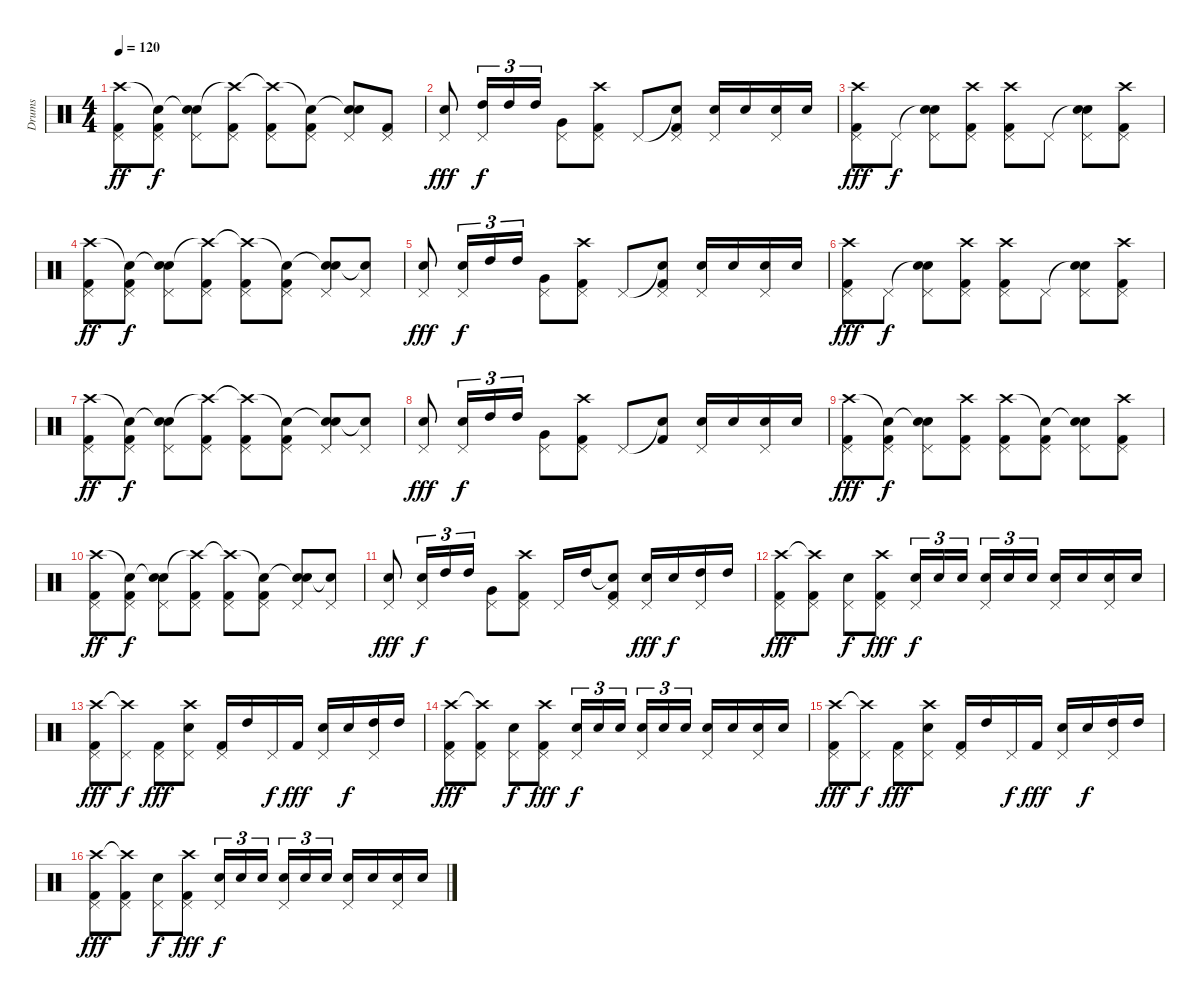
\track ("Drums" "Drums") {instrument percussion}
\staff {score}
\articulation defaults
\ts (4 4)
\tempo 120
\clef neutral
\ks c
("Crash high (hit)" "Pedal Hi-Hat (hit)" "Kick (hit) 2").8{dy ff} ("Snare (hit)"{t} "Pedal Hi-Hat (hit)" "Kick (hit) 2").8{dy f} ("Snare (hit)"{t} "Pedal Hi-Hat (hit)" "Electric Snare (hit)").8 ("Crash high (hit)"{t} "Pedal Hi-Hat (hit)" "Kick (hit) 2").8 ("Crash high (hit)"{t} "Pedal Hi-Hat (hit)" "Kick (hit) 2").8 ("Snare (hit)"{t} "Pedal Hi-Hat (hit)" "Kick (hit) 2").8 ("Snare (hit)"{t} "Pedal Hi-Hat (hit)" "Electric Snare (hit)").8 ("Pedal Hi-Hat (hit)" "Kick (hit) 2").8 |
("Pedal Hi-Hat (hit)" "Electric Snare (hit)").8{dy fff} ("Pedal Hi-Hat (hit)" "High Tom (hit)").16{tu (3 2) dy f} "High Tom (hit)".16{tu (3 2)} "High Tom (hit)".16{tu (3 2)} ("Pedal Hi-Hat (hit)" "Very Low Tom (hit)").8 ("Crash high (hit)" "Pedal Hi-Hat (hit)" "Kick (hit) 2").8 "Pedal Hi-Hat (hit)".8 ("Snare (hit)"{t} "Pedal Hi-Hat (hit)" "Kick (hit) 2").8 ("Pedal Hi-Hat (hit)" "Electric Snare (hit)").16 "Electric Snare (hit)".16 ("Pedal Hi-Hat (hit)" "Electric Snare (hit)").16 "Electric Snare (hit)".16 |
("Crash high (hit)" "Pedal Hi-Hat (hit)" "Kick (hit) 2").8{dy fff} "Pedal Hi-Hat (hit)".8{dy f} ("Snare (hit)"{t} "Pedal Hi-Hat (hit)" "Electric Snare (hit)").8 ("Crash high (hit)" "Pedal Hi-Hat (hit)" "Kick (hit) 2").8 ("Crash high (hit)" "Pedal Hi-Hat (hit)" "Kick (hit) 2").8 "Pedal Hi-Hat (hit)".8 ("Snare (hit)"{t} "Pedal Hi-Hat (hit)" "Electric Snare (hit)").8 ("Crash high (hit)" "Pedal Hi-Hat (hit)" "Kick (hit) 2").8 |
("Crash high (hit)" "Pedal Hi-Hat (hit)" "Kick (hit) 2").8{dy ff} ("Snare (hit)"{t} "Pedal Hi-Hat (hit)" "Kick (hit) 2").8{dy f} ("Snare (hit)"{t} "Pedal Hi-Hat (hit)" "Electric Snare (hit)").8 ("Crash high (hit)"{t} "Pedal Hi-Hat (hit)" "Kick (hit) 2").8 ("Crash high (hit)"{t} "Pedal Hi-Hat (hit)" "Kick (hit) 2").8 ("Snare (hit)"{t} "Pedal Hi-Hat (hit)" "Kick (hit) 2").8 ("Snare (hit)"{t} "Pedal Hi-Hat (hit)" "Electric Snare (hit)").8 ("Snare (hit)"{t} "Pedal Hi-Hat (hit)").8 |
("Pedal Hi-Hat (hit)" "Electric Snare (hit)").8{dy fff} ("Pedal Hi-Hat (hit)" "Electric Snare (hit)").16{tu (3 2) dy f} "High Tom (hit)".16{tu (3 2)} "High Tom (hit)".16{tu (3 2)} ("Pedal Hi-Hat (hit)" "Very Low Tom (hit)").8 ("Crash high (hit)" "Pedal Hi-Hat (hit)" "Kick (hit) 2").8 "Pedal Hi-Hat (hit)".8 ("Snare (hit)"{t} "Pedal Hi-Hat (hit)" "Kick (hit) 2").8 ("Pedal Hi-Hat (hit)" "Electric Snare (hit)").16 "Electric Snare (hit)".16 ("Pedal Hi-Hat (hit)" "Electric Snare (hit)").16 "Electric Snare (hit)".16 |
("Crash high (hit)" "Pedal Hi-Hat (hit)" "Kick (hit) 2").8{dy fff} "Pedal Hi-Hat (hit)".8{dy f} ("Snare (hit)"{t} "Pedal Hi-Hat (hit)" "Electric Snare (hit)").8 ("Crash high (hit)" "Pedal Hi-Hat (hit)" "Kick (hit) 2").8 ("Crash high (hit)" "Pedal Hi-Hat (hit)" "Kick (hit) 2").8 "Pedal Hi-Hat (hit)".8 ("Snare (hit)"{t} "Pedal Hi-Hat (hit)" "Electric Snare (hit)").8 ("Crash high (hit)" "Pedal Hi-Hat (hit)" "Kick (hit) 2").8 |
("Crash high (hit)" "Pedal Hi-Hat (hit)" "Kick (hit) 2").8{dy ff} ("Snare (hit)"{t} "Pedal Hi-Hat (hit)" "Kick (hit) 2").8{dy f} ("Snare (hit)"{t} "Pedal Hi-Hat (hit)" "Electric Snare (hit)").8 ("Crash high (hit)"{t} "Pedal Hi-Hat (hit)" "Kick (hit) 2").8 ("Crash high (hit)"{t} "Pedal Hi-Hat (hit)" "Kick (hit) 2").8 ("Snare (hit)"{t} "Pedal Hi-Hat (hit)" "Kick (hit) 2").8 ("Snare (hit)"{t} "Pedal Hi-Hat (hit)" "Electric Snare (hit)").8 ("Snare (hit)"{t} "Pedal Hi-Hat (hit)").8 |
("Pedal Hi-Hat (hit)" "Electric Snare (hit)").8{dy fff} ("Pedal Hi-Hat (hit)" "Electric Snare (hit)").16{tu (3 2) dy f} "High Tom (hit)".16{tu (3 2)} "High Tom (hit)".16{tu (3 2)} ("Pedal Hi-Hat (hit)" "Very Low Tom (hit)").8 ("Crash high (hit)" "Pedal Hi-Hat (hit)" "Kick (hit) 2").8 "Pedal Hi-Hat (hit)".8 ("Snare (hit)"{t} "Kick (hit) 2").8 ("Pedal Hi-Hat (hit)" "Electric Snare (hit)").16 "Electric Snare (hit)".16 ("Pedal Hi-Hat (hit)" "Electric Snare (hit)").16 "Electric Snare (hit)".16 |
("Crash high (hit)" "Pedal Hi-Hat (hit)" "Kick (hit) 2").8{dy fff} ("Snare (hit)"{t} "Pedal Hi-Hat (hit)" "Kick (hit) 2").8{dy f} ("Snare (hit)"{t} "Pedal Hi-Hat (hit)" "Electric Snare (hit)").8 ("Crash high (hit)" "Pedal Hi-Hat (hit)" "Kick (hit) 2").8 ("Crash high (hit)" "Pedal Hi-Hat (hit)" "Kick (hit) 2").8 ("Snare (hit)"{t} "Pedal Hi-Hat (hit)" "Kick (hit) 2").8 ("Snare (hit)"{t} "Pedal Hi-Hat (hit)" "Electric Snare (hit)").8 ("Crash high (hit)" "Pedal Hi-Hat (hit)" "Kick (hit) 2").8 |
("Crash high (hit)" "Pedal Hi-Hat (hit)" "Kick (hit) 2").8{dy ff} ("Snare (hit)"{t} "Pedal Hi-Hat (hit)" "Kick (hit) 2").8{dy f} ("Snare (hit)"{t} "Pedal Hi-Hat (hit)" "Electric Snare (hit)").8 ("Crash high (hit)"{t} "Pedal Hi-Hat (hit)" "Kick (hit) 2").8 ("Crash high (hit)"{t} "Pedal Hi-Hat (hit)" "Kick (hit) 2").8 ("Snare (hit)"{t} "Pedal Hi-Hat (hit)" "Kick (hit) 2").8 ("Snare (hit)"{t} "Pedal Hi-Hat (hit)" "Electric Snare (hit)").8 ("Snare (hit)"{t} "Pedal Hi-Hat (hit)").8 |
("Pedal Hi-Hat (hit)" "Electric Snare (hit)").8{dy fff} ("Pedal Hi-Hat (hit)" "Electric Snare (hit)").16{tu (3 2) dy f} "High Tom (hit)".16{tu (3 2)} "High Tom (hit)".16{tu (3 2)} ("Pedal Hi-Hat (hit)" "Very Low Tom (hit)").8 ("Crash high (hit)" "Pedal Hi-Hat (hit)" "Kick (hit) 2").8 "Pedal Hi-Hat (hit)".16 "High Tom (hit)".16 ("Snare (hit)"{t} "Pedal Hi-Hat (hit)" "Kick (hit) 2").8 ("Pedal Hi-Hat (hit)" "Electric Snare (hit)").16{dy fff} "Electric Snare (hit)".16{dy f} ("Pedal Hi-Hat (hit)" "High Tom (hit)").16 "High Tom (hit)".16 |
("Crash high (hit)" "Pedal Hi-Hat (hit)" "Kick (hit) 2").8{dy fff} ("Crash high (hit)"{t} "Pedal Hi-Hat (hit)" "Kick (hit) 2").8 ("Pedal Hi-Hat (hit)" "Electric Snare (hit)").8{dy f} ("Crash high (hit)" "Pedal Hi-Hat (hit)" "Kick (hit) 2").8{dy fff} ("Pedal Hi-Hat (hit)" "Electric Snare (hit)").16{tu (3 2) dy f} "Electric Snare (hit)".16{tu (3 2)} "Electric Snare (hit)".16{tu (3 2)} ("Pedal Hi-Hat (hit)" "Electric Snare (hit)").16{tu (3 2)} "Electric Snare (hit)".16{tu (3 2)} "Electric Snare (hit)".16{tu (3 2)} ("Pedal Hi-Hat (hit)" "Electric Snare (hit)").16 "Electric Snare (hit)".16 ("Pedal Hi-Hat (hit)" "Electric Snare (hit)").16 "Electric Snare (hit)".16 |
("Crash high (hit)" "Pedal Hi-Hat (hit)" "Kick (hit) 2").8{dy fff} ("Crash high (hit)"{t} "Pedal Hi-Hat (hit)").8{dy f} ("Pedal Hi-Hat (hit)" "Kick (hit) 2").8{dy fff} ("Crash high (hit)" "Pedal Hi-Hat (hit)" "Electric Snare (hit)").8 ("Pedal Hi-Hat (hit)" "Kick (hit) 2").16 "High Tom (hit)".16 "Pedal Hi-Hat (hit)".16{dy f} "Kick (hit) 2".16{dy fff} ("Pedal Hi-Hat (hit)" "Electric Snare (hit)").16 "Electric Snare (hit)".16{dy f} ("Pedal Hi-Hat (hit)" "High Tom (hit)").16 "High Tom (hit)".16 |
("Crash high (hit)" "Pedal Hi-Hat (hit)" "Kick (hit) 2").8{dy fff} ("Crash high (hit)"{t} "Pedal Hi-Hat (hit)" "Kick (hit) 2").8 ("Pedal Hi-Hat (hit)" "Electric Snare (hit)").8{dy f} ("Crash high (hit)" "Pedal Hi-Hat (hit)" "Kick (hit) 2").8{dy fff} ("Pedal Hi-Hat (hit)" "Electric Snare (hit)").16{tu (3 2) dy f} "Electric Snare (hit)".16{tu (3 2)} "Electric Snare (hit)".16{tu (3 2)} ("Pedal Hi-Hat (hit)" "Electric Snare (hit)").16{tu (3 2)} "Electric Snare (hit)".16{tu (3 2)} "Electric Snare (hit)".16{tu (3 2)} ("Pedal Hi-Hat (hit)" "Electric Snare (hit)").16 "Electric Snare (hit)".16 ("Pedal Hi-Hat (hit)" "Electric Snare (hit)").16 "Electric Snare (hit)".16 |
("Crash high (hit)" "Pedal Hi-Hat (hit)" "Kick (hit) 2").8{dy fff} ("Crash high (hit)"{t} "Pedal Hi-Hat (hit)").8{dy f} ("Pedal Hi-Hat (hit)" "Kick (hit) 2").8{dy fff} ("Crash high (hit)" "Pedal Hi-Hat (hit)" "Electric Snare (hit)").8 ("Pedal Hi-Hat (hit)" "Kick (hit) 2").16 "High Tom (hit)".16 "Pedal Hi-Hat (hit)".16{dy f} "Kick (hit) 2".16{dy fff} ("Pedal Hi-Hat (hit)" "Electric Snare (hit)").16 "Electric Snare (hit)".16{dy f} ("Pedal Hi-Hat (hit)" "High Tom (hit)").16 "High Tom (hit)".16 |
("Crash high (hit)" "Pedal Hi-Hat (hit)" "Kick (hit) 2").8{dy fff} ("Crash high (hit)"{t} "Pedal Hi-Hat (hit)" "Kick (hit) 2").8 ("Pedal Hi-Hat (hit)" "Electric Snare (hit)").8{dy f} ("Crash high (hit)" "Pedal Hi-Hat (hit)" "Kick (hit) 2").8{dy fff} ("Pedal Hi-Hat (hit)" "Electric Snare (hit)").16{tu (3 2) dy f} "Electric Snare (hit)".16{tu (3 2)} "Electric Snare (hit)".16{tu (3 2)} ("Pedal Hi-Hat (hit)" "Electric Snare (hit)").16{tu (3 2)} "Electric Snare (hit)".16{tu (3 2)} "Electric Snare (hit)".16{tu (3 2)} ("Pedal Hi-Hat (hit)" "Electric Snare (hit)").16 "Electric Snare (hit)".16 ("Pedal Hi-Hat (hit)" "Electric Snare (hit)").16 "Electric Snare (hit)".16
